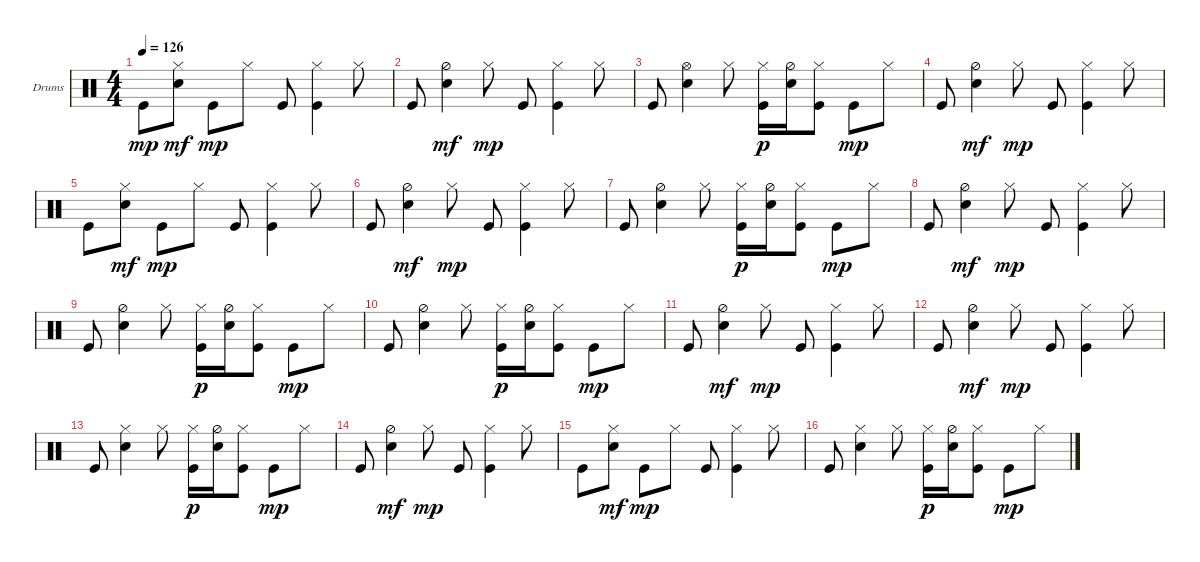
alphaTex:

\bracketExtendMode groupsimilarinstruments
\firstSystemTrackNameOrientation horizontal
\otherSystemsTrackNameOrientation horizontal
\track ("drums - john hinch" "Drums") {instrument percussion}
\staff {score}
\articulation defaults
\ts (4 4)
\tempo 126
\clef neutral
\scale
0.333333
\ks c "Kick (hit)".8{dy mp}
("Snare (hit) 2" "Hi-Hat (closed)").8{dy mf} "Kick (hit)".8{dy mp} "Hi-Hat (closed)".8 "Kick (hit)".8 ("Hi-Hat (closed)" "Kick (hit)").4 "Hi-Hat (closed)".8 |
\scale
0.333333 "Kick (hit)".8 ("Snare (hit) 2" "Hi-Hat (half)").4{dy mf} "Hi-Hat (closed)".8{dy mp} "Kick (hit)".8 ("Hi-Hat (closed)" "Kick (hit)").4 "Hi-Hat (closed)".8 |
\scale
0.333333 "Kick (hit)".8 ("Snare (hit) 2" "Hi-Hat (open)").4 "Hi-Hat (closed)".8 ("Kick (hit)" "Hi-Hat (closed)").16{dy p} ("Snare (hit) 2" "Hi-Hat (half)").16 ("Kick (hit)" "Hi-Hat (closed)").8 "Kick (hit)".8{dy mp} "Hi-Hat (closed)".8 |
\scale
0.333333 "Kick (hit)".8 ("Snare (hit) 2" "Hi-Hat (half)").4{dy mf} "Hi-Hat (closed)".8{dy mp} "Kick (hit)".8 ("Hi-Hat (closed)" "Kick (hit)").4 "Hi-Hat (closed)".8 |
\scale
0.333333 "Kick (hit)".8 ("Snare (hit) 2" "Hi-Hat (closed)").8{dy mf} "Kick (hit)".8{dy mp} "Hi-Hat (closed)".8 "Kick (hit)".8 ("Hi-Hat (closed)" "Kick (hit)").4 "Hi-Hat (closed)".8 |
\scale
0.333333 "Kick (hit)".8 ("Snare (hit) 2" "Hi-Hat (half)").4{dy mf} "Hi-Hat (closed)".8{dy mp} "Kick (hit)".8 ("Hi-Hat (closed)" "Kick (hit)").4 "Hi-Hat (closed)".8 |
\scale
0.333333 "Kick (hit)".8 ("Snare (hit) 2" "Hi-Hat (half)").4 "Hi-Hat (closed)".8 ("Kick (hit)" "Hi-Hat (closed)").16{dy p} ("Snare (hit) 2" "Hi-Hat (half)").16 ("Kick (hit)" "Hi-Hat (closed)").8 "Kick (hit)".8{dy mp} "Hi-Hat (closed)".8 |
\scale
0.333333 "Kick (hit)".8 ("Snare (hit) 2" "Hi-Hat (half)").4{dy mf} "Hi-Hat (closed)".8{dy mp} "Kick (hit)".8 ("Hi-Hat (closed)" "Kick (hit)").4 "Hi-Hat (closed)".8 |
\scale
0.333333 "Kick (hit)".8 ("Snare (hit) 2" "Hi-Hat (half)").4 "Hi-Hat (closed)".8 ("Kick (hit)" "Hi-Hat (closed)").16{dy p} ("Snare (hit) 2" "Hi-Hat (half)").16 ("Kick (hit)" "Hi-Hat (closed)").8 "Kick (hit)".8{dy mp} "Hi-Hat (closed)".8 |
\scale
0.333333 "Kick (hit)".8 ("Snare (hit) 2" "Hi-Hat (half)").4 "Hi-Hat (closed)".8 ("Kick (hit)" "Hi-Hat (closed)").16{dy p} ("Snare (hit) 2" "Hi-Hat (half)").16 ("Kick (hit)" "Hi-Hat (closed)").8 "Kick (hit)".8{dy mp} "Hi-Hat (closed)".8 |
\scale
0.333333 "Kick (hit)".8 ("Snare (hit) 2" "Hi-Hat (half)").4{dy mf} "Hi-Hat (closed)".8{dy mp} "Kick (hit)".8 ("Hi-Hat (closed)" "Kick (hit)").4 "Hi-Hat (closed)".8 |
\scale
0.333333 "Kick (hit)".8 ("Snare (hit) 2" "Hi-Hat (half)").4{dy mf} "Hi-Hat (closed)".8{dy mp} "Kick (hit)".8 ("Hi-Hat (closed)" "Kick (hit)").4 "Hi-Hat (closed)".8 |
\scale
0.333333 "Kick (hit)".8 ("Snare (hit) 2" "Hi-Hat (closed)").4 "Hi-Hat (closed)".8 ("Kick (hit)" "Hi-Hat (closed)").16{dy p} ("Snare (hit) 2" "Hi-Hat (half)").16 ("Kick (hit)" "Hi-Hat (closed)").8 "Kick (hit)".8{dy mp} "Hi-Hat (closed)".8 |
\scale
0.333333 "Kick (hit)".8 ("Snare (hit) 2" "Hi-Hat (half)").4{dy mf} "Hi-Hat (closed)".8{dy mp} "Kick (hit)".8 ("Hi-Hat (closed)" "Kick (hit)").4 "Hi-Hat (closed)".8 |
\scale
0.333333 "Kick (hit)".8 ("Snare (hit) 2" "Hi-Hat (closed)").8{dy mf} "Kick (hit)".8{dy mp} "Hi-Hat (closed)".8 "Kick (hit)".8 ("Hi-Hat (closed)" "Kick (hit)").4 "Hi-Hat (closed)".8 |
\scale
0.333333 "Kick (hit)".8 ("Snare (hit) 2" "Hi-Hat (closed)").4 "Hi-Hat (closed)".8 ("Kick (hit)" "Hi-Hat (closed)").16{dy p} ("Snare (hit) 2" "Hi-Hat (half)").16 ("Kick (hit)" "Hi-Hat (closed)").8 "Kick (hit)".8{dy mp} "Hi-Hat (closed)".8
